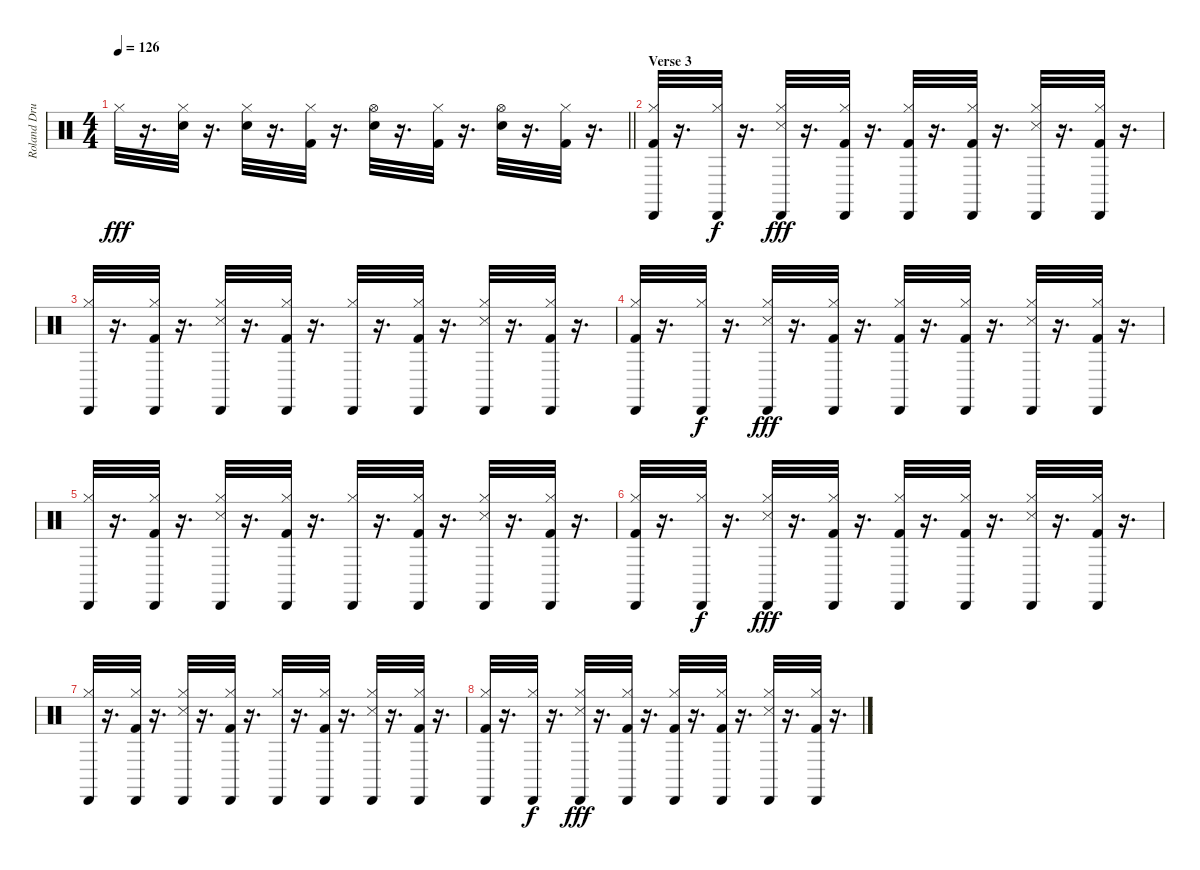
\track ("Roland Drums" "Roland Dru") {instrument percussion}
\staff {score}
\articulation defaults
\ts (4 4)
\tempo 126
\clef neutral
\barLineRight lightlight
\ks c "Hi-Hat (closed)".32{dy fff}
r.16{d} ("Snare (hit) 2" "Hi-Hat (closed)").32 r.16{d} ("Snare (hit) 2" "Hi-Hat (closed)").32 r.16{d} ("Kick (hit) 2" "Hi-Hat (closed)").32 r.16{d} ("Snare (hit) 2" "Hi-Hat (open)").32 r.16{d} ("Kick (hit) 2" "Hi-Hat (closed)").32 r.16{d} ("Snare (hit) 2" "Hi-Hat (open)").32 r.16{d} ("Kick (hit) 2" "Hi-Hat (closed)").32 r.16{d} |
\section ("" "Verse 3")
("Kick (hit) 2" "Hi-Hat (closed)" "Cabasa (hit)").32 r.16{d} ("Hi-Hat (closed)" "Cabasa (hit)").32{dy f} r.16{d} ("Hi-Hat (closed)" "Snare (side stick) 3" "Cabasa (hit)").32{dy fff} r.16{d} ("Kick (hit) 2" "Hi-Hat (closed)" "Cabasa (hit)").32 r.16{d} ("Kick (hit) 2" "Hi-Hat (closed)" "Cabasa (hit)").32 r.16{d} ("Kick (hit) 2" "Hi-Hat (closed)" "Cabasa (hit)").32 r.16{d} ("Hi-Hat (closed)" "Snare (side stick) 3" "Cabasa (hit)").32 r.16{d} ("Kick (hit) 2" "Hi-Hat (closed)" "Cabasa (hit)").32 r.16{d} |
("Hi-Hat (closed)" "Cabasa (hit)").32 r.16{d} ("Kick (hit) 2" "Hi-Hat (closed)" "Cabasa (hit)").32 r.16{d} ("Hi-Hat (closed)" "Snare (side stick) 3" "Cabasa (hit)").32 r.16{d} ("Kick (hit) 2" "Hi-Hat (closed)" "Cabasa (hit)").32 r.16{d} ("Hi-Hat (closed)" "Cabasa (hit)").32 r.16{d} ("Kick (hit) 2" "Hi-Hat (closed)" "Cabasa (hit)").32 r.16{d} ("Hi-Hat (closed)" "Snare (side stick) 3" "Cabasa (hit)").32 r.16{d} ("Kick (hit) 2" "Hi-Hat (closed)" "Cabasa (hit)").32 r.16{d} |
("Kick (hit) 2" "Hi-Hat (closed)" "Cabasa (hit)").32 r.16{d} ("Hi-Hat (closed)" "Cabasa (hit)").32{dy f} r.16{d} ("Hi-Hat (closed)" "Snare (side stick) 3" "Cabasa (hit)").32{dy fff} r.16{d} ("Kick (hit) 2" "Hi-Hat (closed)" "Cabasa (hit)").32 r.16{d} ("Kick (hit) 2" "Hi-Hat (closed)" "Cabasa (hit)").32 r.16{d} ("Kick (hit) 2" "Hi-Hat (closed)" "Cabasa (hit)").32 r.16{d} ("Hi-Hat (closed)" "Snare (side stick) 3" "Cabasa (hit)").32 r.16{d} ("Kick (hit) 2" "Hi-Hat (closed)" "Cabasa (hit)").32 r.16{d} |
("Hi-Hat (closed)" "Cabasa (hit)").32 r.16{d} ("Kick (hit) 2" "Hi-Hat (closed)" "Cabasa (hit)").32 r.16{d} ("Hi-Hat (closed)" "Snare (side stick) 3" "Cabasa (hit)").32 r.16{d} ("Kick (hit) 2" "Hi-Hat (closed)" "Cabasa (hit)").32 r.16{d} ("Hi-Hat (closed)" "Cabasa (hit)").32 r.16{d} ("Kick (hit) 2" "Hi-Hat (closed)" "Cabasa (hit)").32 r.16{d} ("Hi-Hat (closed)" "Snare (side stick) 3" "Cabasa (hit)").32 r.16{d} ("Kick (hit) 2" "Hi-Hat (closed)" "Cabasa (hit)").32 r.16{d} |
("Kick (hit) 2" "Hi-Hat (closed)" "Cabasa (hit)").32 r.16{d} ("Hi-Hat (closed)" "Cabasa (hit)").32{dy f} r.16{d} ("Hi-Hat (closed)" "Snare (side stick) 3" "Cabasa (hit)").32{dy fff} r.16{d} ("Kick (hit) 2" "Hi-Hat (closed)" "Cabasa (hit)").32 r.16{d} ("Kick (hit) 2" "Hi-Hat (closed)" "Cabasa (hit)").32 r.16{d} ("Kick (hit) 2" "Hi-Hat (closed)" "Cabasa (hit)").32 r.16{d} ("Hi-Hat (closed)" "Snare (side stick) 3" "Cabasa (hit)").32 r.16{d} ("Kick (hit) 2" "Hi-Hat (closed)" "Cabasa (hit)").32 r.16{d} |
("Hi-Hat (closed)" "Cabasa (hit)").32 r.16{d} ("Kick (hit) 2" "Hi-Hat (closed)" "Cabasa (hit)").32 r.16{d} ("Hi-Hat (closed)" "Snare (side stick) 3" "Cabasa (hit)").32 r.16{d} ("Kick (hit) 2" "Hi-Hat (closed)" "Cabasa (hit)").32 r.16{d} ("Hi-Hat (closed)" "Cabasa (hit)").32 r.16{d} ("Kick (hit) 2" "Hi-Hat (closed)" "Cabasa (hit)").32 r.16{d} ("Hi-Hat (closed)" "Snare (side stick) 3" "Cabasa (hit)").32 r.16{d} ("Kick (hit) 2" "Hi-Hat (closed)" "Cabasa (hit)").32 r.16{d} |
("Kick (hit) 2" "Hi-Hat (closed)" "Cabasa (hit)").32 r.16{d} ("Hi-Hat (closed)" "Cabasa (hit)").32{dy f} r.16{d} ("Hi-Hat (closed)" "Snare (side stick) 3" "Cabasa (hit)").32{dy fff} r.16{d} ("Kick (hit) 2" "Hi-Hat (closed)" "Cabasa (hit)").32 r.16{d} ("Kick (hit) 2" "Hi-Hat (closed)" "Cabasa (hit)").32 r.16{d} ("Kick (hit) 2" "Hi-Hat (closed)" "Cabasa (hit)").32 r.16{d} ("Hi-Hat (closed)" "Snare (side stick) 3" "Cabasa (hit)").32 r.16{d} ("Kick (hit) 2" "Hi-Hat (closed)" "Cabasa (hit)").32 r.16{d}
